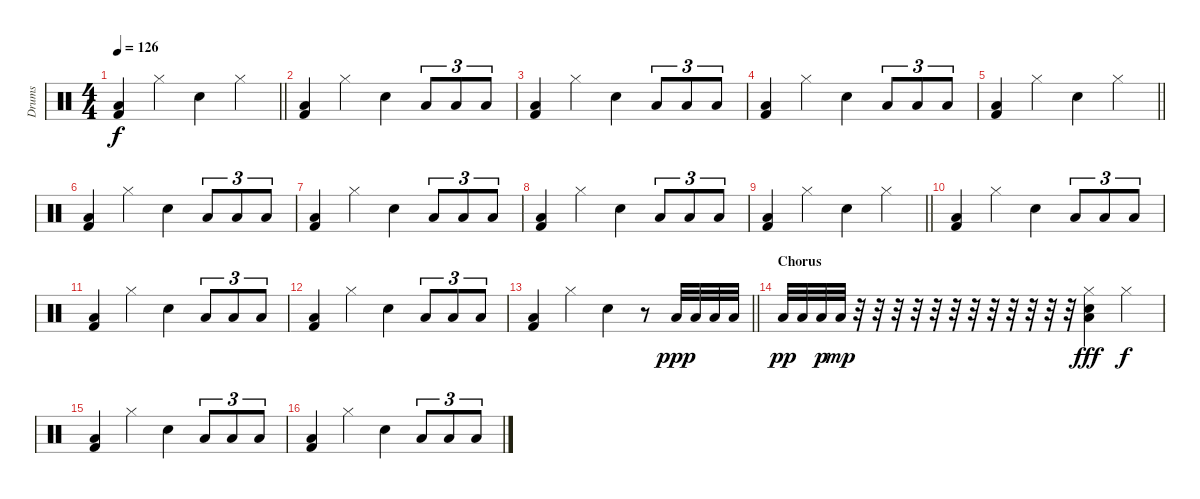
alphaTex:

\track ("Drums" "Drums") {instrument percussion}
\staff {score}
\articulation defaults
\ts (4 4)
\tempo 126
\clef neutral
\barLineRight lightlight
\ks c
("Low Floor Tom (hit)" "Kick (hit) 2").4{dy f} "Hi-Hat (closed)".4 "Electric Snare (hit)".4 "Hi-Hat (closed)".4 |
("Low Floor Tom (hit)" "Kick (hit) 2").4 "Hi-Hat (closed)".4 "Electric Snare (hit)".4 "Low Floor Tom (hit)".8{tu (3 2)} "Low Floor Tom (hit)".8{tu (3 2)} "Low Floor Tom (hit)".8{tu (3 2)} |
("Low Floor Tom (hit)" "Kick (hit) 2").4 "Hi-Hat (closed)".4 "Electric Snare (hit)".4 "Low Floor Tom (hit)".8{tu (3 2)} "Low Floor Tom (hit)".8{tu (3 2)} "Low Floor Tom (hit)".8{tu (3 2)} |
("Low Floor Tom (hit)" "Kick (hit) 2").4 "Hi-Hat (closed)".4 "Electric Snare (hit)".4 "Low Floor Tom (hit)".8{tu (3 2)} "Low Floor Tom (hit)".8{tu (3 2)} "Low Floor Tom (hit)".8{tu (3 2)} |
\barLineRight lightlight
("Low Floor Tom (hit)" "Kick (hit) 2").4 "Hi-Hat (closed)".4 "Electric Snare (hit)".4 "Hi-Hat (closed)".4 |
("Low Floor Tom (hit)" "Kick (hit) 2").4 "Hi-Hat (closed)".4 "Electric Snare (hit)".4 "Low Floor Tom (hit)".8{tu (3 2)} "Low Floor Tom (hit)".8{tu (3 2)} "Low Floor Tom (hit)".8{tu (3 2)} |
("Low Floor Tom (hit)" "Kick (hit) 2").4 "Hi-Hat (closed)".4 "Electric Snare (hit)".4 "Low Floor Tom (hit)".8{tu (3 2)} "Low Floor Tom (hit)".8{tu (3 2)} "Low Floor Tom (hit)".8{tu (3 2)} |
("Low Floor Tom (hit)" "Kick (hit) 2").4 "Hi-Hat (closed)".4 "Electric Snare (hit)".4 "Low Floor Tom (hit)".8{tu (3 2)} "Low Floor Tom (hit)".8{tu (3 2)} "Low Floor Tom (hit)".8{tu (3 2)} |
\barLineRight lightlight
("Low Floor Tom (hit)" "Kick (hit) 2").4 "Hi-Hat (closed)".4 "Electric Snare (hit)".4 "Hi-Hat (closed)".4 |
("Low Floor Tom (hit)" "Kick (hit) 2").4 "Hi-Hat (closed)".4 "Electric Snare (hit)".4 "Low Floor Tom (hit)".8{tu (3 2)} "Low Floor Tom (hit)".8{tu (3 2)} "Low Floor Tom (hit)".8{tu (3 2)} |
("Low Floor Tom (hit)" "Kick (hit) 2").4 "Hi-Hat (closed)".4 "Electric Snare (hit)".4 "Low Floor Tom (hit)".8{tu (3 2)} "Low Floor Tom (hit)".8{tu (3 2)} "Low Floor Tom (hit)".8{tu (3 2)} |
("Low Floor Tom (hit)" "Kick (hit) 2").4 "Hi-Hat (closed)".4 "Electric Snare (hit)".4 "Low Floor Tom (hit)".8{tu (3 2)} "Low Floor Tom (hit)".8{tu (3 2)} "Low Floor Tom (hit)".8{tu (3 2)} |
\barLineRight lightlight
("Low Floor Tom (hit)" "Kick (hit) 2").4 "Hi-Hat (closed)".4 "Electric Snare (hit)".4 r.8 "Low Floor Tom (hit)".32{dy ppp} "Low Floor Tom (hit)".32 "Low Floor Tom (hit)".32 "Low Floor Tom (hit)".32 |
\section ("" "Chorus")
"Low Floor Tom (hit)".32{dy pp} "Low Floor Tom (hit)".32 "Low Floor Tom (hit)".32{dy p} "Low Floor Tom (hit)".32{dy mp} r.32 r.32 r.32 r.32 r.32 r.32 r.32 r.32 r.32 r.32 r.32 r.32 ("Hi-Hat (closed)" "Electric Snare (hit)" "Low Floor Tom (hit)").4{dy fff} "Hi-Hat (closed)".4{dy f} |
("Low Floor Tom (hit)" "Kick (hit) 2").4 "Hi-Hat (closed)".4 "Electric Snare (hit)".4 "Low Floor Tom (hit)".8{tu (3 2)} "Low Floor Tom (hit)".8{tu (3 2)} "Low Floor Tom (hit)".8{tu (3 2)} |
("Low Floor Tom (hit)" "Kick (hit) 2").4 "Hi-Hat (closed)".4 "Electric Snare (hit)".4 "Low Floor Tom (hit)".8{tu (3 2)} "Low Floor Tom (hit)".8{tu (3 2)} "Low Floor Tom (hit)".8{tu (3 2)}
